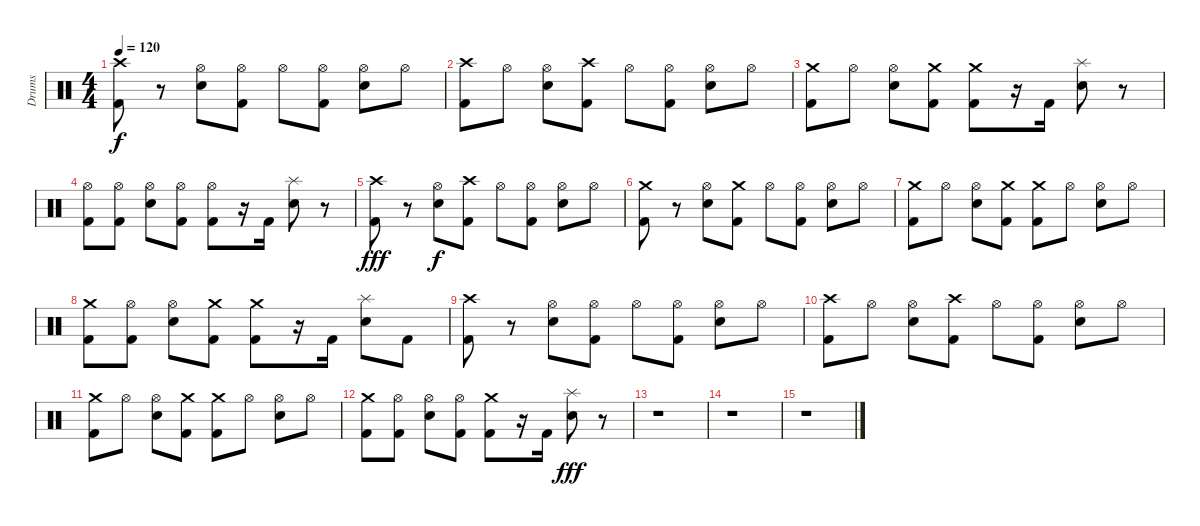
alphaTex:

\track ("Drums" "Drums") {instrument percussion}
\staff {score}
\articulation defaults
\ts (4 4)
\tempo 120
\clef neutral
\ks c
("Crash high (hit)" "Kick (hit) 2").8{dy f} r.8 ("Hi-Hat (open)" "Electric Snare (hit)").8 ("Hi-Hat (open)" "Kick (hit) 2").8 "Hi-Hat (open)".8 ("Hi-Hat (open)" "Kick (hit) 2").8 ("Hi-Hat (open)" "Electric Snare (hit)").8 "Hi-Hat (open)".8 |
("Crash high (hit)" "Kick (hit) 2").8 "Hi-Hat (open)".8 ("Hi-Hat (open)" "Electric Snare (hit)").8 ("Crash high (hit)" "Kick (hit) 2").8 "Hi-Hat (open)".8 ("Hi-Hat (open)" "Kick (hit) 2").8 ("Hi-Hat (open)" "Electric Snare (hit)").8 "Hi-Hat (open)".8 |
("Crash medium (hit)" "Kick (hit) 2").8 "Hi-Hat (open)".8 ("Hi-Hat (open)" "Electric Snare (hit)").8 ("Crash medium (hit)" "Kick (hit) 2").8 ("Crash medium (hit)" "Kick (hit) 2").8 r.16 "Kick (hit) 2".16 ("Splash (hit)" "Electric Snare (hit)").8 r.8 |
("Hi-Hat (open)" "Kick (hit) 2").8 ("Hi-Hat (open)" "Kick (hit) 2").8 ("Hi-Hat (open)" "Electric Snare (hit)").8 ("Hi-Hat (open)" "Kick (hit) 2").8 ("Hi-Hat (open)" "Kick (hit) 2").8 r.16 "Kick (hit) 2".16 ("Splash (hit)" "Electric Snare (hit)").8 r.8 |
("Crash high (hit)" "Kick (hit) 2").8{dy fff} r.8 ("Hi-Hat (open)" "Electric Snare (hit)").8{dy f} ("Crash high (hit)" "Kick (hit) 2").8 "Hi-Hat (open)".8 ("Hi-Hat (open)" "Kick (hit) 2").8 ("Hi-Hat (open)" "Electric Snare (hit)").8 "Hi-Hat (open)".8 |
("Crash medium (hit)" "Kick (hit) 2").8 r.8 ("Hi-Hat (open)" "Electric Snare (hit)").8 ("Crash medium (hit)" "Kick (hit) 2").8 "Hi-Hat (open)".8 ("Hi-Hat (open)" "Kick (hit) 2").8 ("Hi-Hat (open)" "Electric Snare (hit)").8 "Hi-Hat (open)".8 |
("Crash medium (hit)" "Kick (hit) 2").8 "Hi-Hat (open)".8 ("Hi-Hat (open)" "Electric Snare (hit)").8 ("Crash medium (hit)" "Kick (hit) 2").8 ("Crash medium (hit)" "Kick (hit) 2").8 "Hi-Hat (open)".8 ("Hi-Hat (open)" "Electric Snare (hit)").8 "Hi-Hat (open)".8 |
("Crash medium (hit)" "Kick (hit) 2").8 ("Hi-Hat (open)" "Kick (hit) 2").8 ("Hi-Hat (open)" "Electric Snare (hit)").8 ("Crash medium (hit)" "Kick (hit) 2").8 ("Crash medium (hit)" "Kick (hit) 2").8 r.16 "Kick (hit) 2".16 ("Splash (hit)" "Electric Snare (hit)").8 "Kick (hit) 2".8 |
("Crash high (hit)" "Kick (hit) 2").8 r.8 ("Hi-Hat (open)" "Electric Snare (hit)").8 ("Hi-Hat (open)" "Kick (hit) 2").8 "Hi-Hat (open)".8 ("Hi-Hat (open)" "Kick (hit) 2").8 ("Hi-Hat (open)" "Electric Snare (hit)").8 "Hi-Hat (open)".8 |
("Crash high (hit)" "Kick (hit) 2").8 "Hi-Hat (open)".8 ("Hi-Hat (open)" "Electric Snare (hit)").8 ("Crash high (hit)" "Kick (hit) 2").8 "Hi-Hat (open)".8 ("Hi-Hat (open)" "Kick (hit) 2").8 ("Hi-Hat (open)" "Electric Snare (hit)").8 "Hi-Hat (open)".8 |
("Crash medium (hit)" "Kick (hit) 2").8 "Hi-Hat (open)".8 ("Hi-Hat (open)" "Electric Snare (hit)").8 ("Crash medium (hit)" "Kick (hit) 2").8 ("Crash medium (hit)" "Kick (hit) 2").8 "Hi-Hat (open)".8 ("Hi-Hat (open)" "Electric Snare (hit)").8 "Hi-Hat (open)".8 |
("Crash medium (hit)" "Kick (hit) 2").8 ("Hi-Hat (open)" "Kick (hit) 2").8 ("Hi-Hat (open)" "Electric Snare (hit)").8 ("Hi-Hat (open)" "Kick (hit) 2").8 ("Crash medium (hit)" "Kick (hit) 2").8 r.16 "Kick (hit) 2".16 ("Splash (hit)" "Electric Snare (hit)").8{dy fff} r.8 |
r.1 |
r.1 |
r.1
